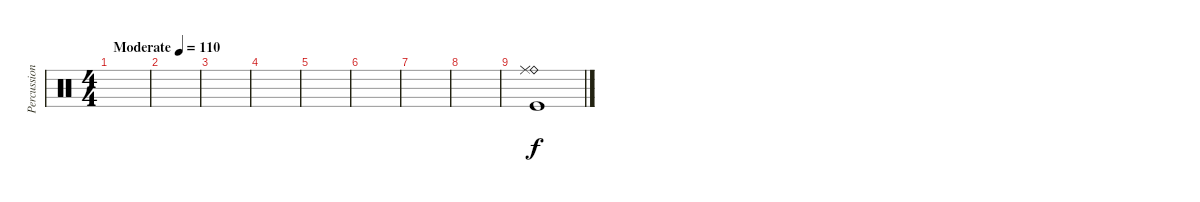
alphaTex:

\track ("Percussion" "Percussion") {instrument percussion}
\staff {score}
\articulation defaults
\ts (4 4)
\tempo (110 "Moderate")
\clef neutral
\ks c
|
|
|
|
|
|
|
|
("Ride (bell)" "Ride (middle)" "Kick (hit)").1
